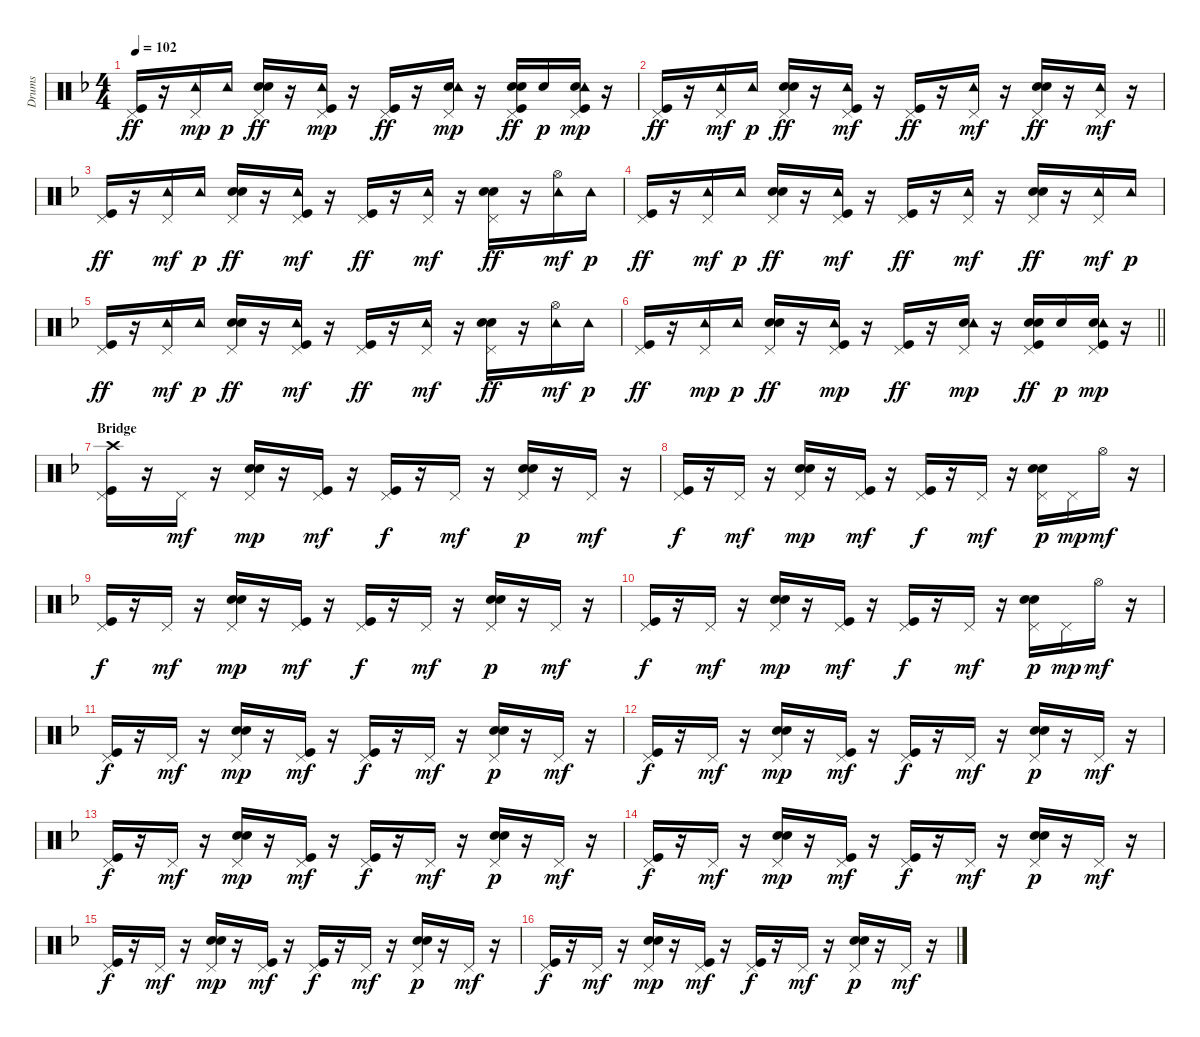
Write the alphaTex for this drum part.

\track ("Drums   " "Drums   ") {instrument percussion}
\staff {score}
\articulation defaults
\ts (4 4)
\tempo 102
\clef neutral
\ks f
("Kick (hit)" "Pedal Hi-Hat (hit)").16{dy ff} r.16 ("Pedal Hi-Hat (hit)" "Tambourine (hit)").16{dy mp} "Tambourine (hit)".16{dy p} ("Electric Snare (hit)" "Pedal Hi-Hat (hit)" "Hand Clap (hit)").16{dy ff} r.16 ("Kick (hit)" "Pedal Hi-Hat (hit)" "Tambourine (hit)").16{dy mp} r.16 ("Kick (hit)" "Pedal Hi-Hat (hit)").16{dy ff} r.16 ("Electric Snare (hit)" "Pedal Hi-Hat (hit)" "Tambourine (hit)").16{dy mp} r.16 ("Kick (hit)" "Electric Snare (hit)" "Pedal Hi-Hat (hit)" "Hand Clap (hit)").16{dy ff} "Electric Snare (hit)".16{dy p} ("Kick (hit)" "Electric Snare (hit)" "Pedal Hi-Hat (hit)" "Tambourine (hit)").16{dy mp} r.16 |
("Kick (hit)" "Pedal Hi-Hat (hit)").16{dy ff} r.16 ("Pedal Hi-Hat (hit)" "Tambourine (hit)").16{dy mf} "Tambourine (hit)".16{dy p} ("Electric Snare (hit)" "Pedal Hi-Hat (hit)" "Hand Clap (hit)").16{dy ff} r.16 ("Kick (hit)" "Pedal Hi-Hat (hit)" "Tambourine (hit)").16{dy mf} r.16 ("Kick (hit)" "Pedal Hi-Hat (hit)").16{dy ff} r.16 ("Pedal Hi-Hat (hit)" "Tambourine (hit)").16{dy mf} r.16 ("Electric Snare (hit)" "Pedal Hi-Hat (hit)" "Hand Clap (hit)").16{dy ff} r.16 ("Pedal Hi-Hat (hit)" "Tambourine (hit)").16{dy mf} r.16 |
("Kick (hit)" "Pedal Hi-Hat (hit)").16{dy ff} r.16 ("Pedal Hi-Hat (hit)" "Tambourine (hit)").16{dy mf} "Tambourine (hit)".16{dy p} ("Electric Snare (hit)" "Pedal Hi-Hat (hit)" "Hand Clap (hit)").16{dy ff} r.16 ("Kick (hit)" "Pedal Hi-Hat (hit)" "Tambourine (hit)").16{dy mf} r.16 ("Kick (hit)" "Pedal Hi-Hat (hit)").16{dy ff} r.16 ("Pedal Hi-Hat (hit)" "Tambourine (hit)").16{dy mf} r.16 ("Electric Snare (hit)" "Pedal Hi-Hat (hit)" "Hand Clap (hit)").16{dy ff} r.16 ("Hi-Hat (open)" "Tambourine (hit)").16{dy mf} "Tambourine (hit)".16{dy p} |
("Kick (hit)" "Pedal Hi-Hat (hit)").16{dy ff} r.16 ("Pedal Hi-Hat (hit)" "Tambourine (hit)").16{dy mf} "Tambourine (hit)".16{dy p} ("Electric Snare (hit)" "Pedal Hi-Hat (hit)" "Hand Clap (hit)").16{dy ff} r.16 ("Kick (hit)" "Pedal Hi-Hat (hit)" "Tambourine (hit)").16{dy mf} r.16 ("Kick (hit)" "Pedal Hi-Hat (hit)").16{dy ff} r.16 ("Pedal Hi-Hat (hit)" "Tambourine (hit)").16{dy mf} r.16 ("Electric Snare (hit)" "Pedal Hi-Hat (hit)" "Hand Clap (hit)").16{dy ff} r.16 ("Pedal Hi-Hat (hit)" "Tambourine (hit)").16{dy mf} "Tambourine (hit)".16{dy p} |
("Kick (hit)" "Pedal Hi-Hat (hit)").16{dy ff} r.16 ("Pedal Hi-Hat (hit)" "Tambourine (hit)").16{dy mf} "Tambourine (hit)".16{dy p} ("Electric Snare (hit)" "Pedal Hi-Hat (hit)" "Hand Clap (hit)").16{dy ff} r.16 ("Kick (hit)" "Pedal Hi-Hat (hit)" "Tambourine (hit)").16{dy mf} r.16 ("Kick (hit)" "Pedal Hi-Hat (hit)").16{dy ff} r.16 ("Pedal Hi-Hat (hit)" "Tambourine (hit)").16{dy mf} r.16 ("Electric Snare (hit)" "Pedal Hi-Hat (hit)" "Hand Clap (hit)").16{dy ff} r.16 ("Hi-Hat (open)" "Tambourine (hit)").16{dy mf} "Tambourine (hit)".16{dy p} |
\barLineRight lightlight
("Kick (hit)" "Pedal Hi-Hat (hit)").16{dy ff} r.16 ("Pedal Hi-Hat (hit)" "Tambourine (hit)").16{dy mp} "Tambourine (hit)".16{dy p} ("Electric Snare (hit)" "Pedal Hi-Hat (hit)" "Hand Clap (hit)").16{dy ff} r.16 ("Kick (hit)" "Pedal Hi-Hat (hit)" "Tambourine (hit)").16{dy mp} r.16 ("Kick (hit)" "Pedal Hi-Hat (hit)").16{dy ff} r.16 ("Electric Snare (hit)" "Pedal Hi-Hat (hit)" "Tambourine (hit)").16{dy mp} r.16 ("Kick (hit)" "Electric Snare (hit)" "Pedal Hi-Hat (hit)" "Hand Clap (hit)").16{dy ff} "Electric Snare (hit)".16{dy p} ("Kick (hit)" "Electric Snare (hit)" "Pedal Hi-Hat (hit)" "Tambourine (hit)").16{dy mp} r.16 |
\section ("" "Bridge")
("Kick (hit)" "Crash high (hit)" "Pedal Hi-Hat (hit)").16 r.16 "Pedal Hi-Hat (hit)".16{dy mf} r.16 ("Electric Snare (hit)" "Pedal Hi-Hat (hit)" "Hand Clap (hit)").16{dy mp} r.16 ("Kick (hit)" "Pedal Hi-Hat (hit)").16{dy mf} r.16 ("Kick (hit)" "Pedal Hi-Hat (hit)").16{dy f} r.16 "Pedal Hi-Hat (hit)".16{dy mf} r.16 ("Electric Snare (hit)" "Pedal Hi-Hat (hit)" "Hand Clap (hit)").16{dy p} r.16 "Pedal Hi-Hat (hit)".16{dy mf} r.16 |
("Kick (hit)" "Pedal Hi-Hat (hit)").16{dy f} r.16 "Pedal Hi-Hat (hit)".16{dy mf} r.16 ("Electric Snare (hit)" "Pedal Hi-Hat (hit)" "Hand Clap (hit)").16{dy mp} r.16 ("Kick (hit)" "Pedal Hi-Hat (hit)").16{dy mf} r.16 ("Kick (hit)" "Pedal Hi-Hat (hit)").16{dy f} r.16 "Pedal Hi-Hat (hit)".16{dy mf} r.16 ("Electric Snare (hit)" "Pedal Hi-Hat (hit)" "Hand Clap (hit)").16{dy p} "Pedal Hi-Hat (hit)".16{dy mp} "Hi-Hat (open)".16{dy mf} r.16 |
("Kick (hit)" "Pedal Hi-Hat (hit)").16{dy f} r.16 "Pedal Hi-Hat (hit)".16{dy mf} r.16 ("Electric Snare (hit)" "Pedal Hi-Hat (hit)" "Hand Clap (hit)").16{dy mp} r.16 ("Kick (hit)" "Pedal Hi-Hat (hit)").16{dy mf} r.16 ("Kick (hit)" "Pedal Hi-Hat (hit)").16{dy f} r.16 "Pedal Hi-Hat (hit)".16{dy mf} r.16 ("Electric Snare (hit)" "Pedal Hi-Hat (hit)" "Hand Clap (hit)").16{dy p} r.16 "Pedal Hi-Hat (hit)".16{dy mf} r.16 |
("Kick (hit)" "Pedal Hi-Hat (hit)").16{dy f} r.16 "Pedal Hi-Hat (hit)".16{dy mf} r.16 ("Electric Snare (hit)" "Pedal Hi-Hat (hit)" "Hand Clap (hit)").16{dy mp} r.16 ("Kick (hit)" "Pedal Hi-Hat (hit)").16{dy mf} r.16 ("Kick (hit)" "Pedal Hi-Hat (hit)").16{dy f} r.16 "Pedal Hi-Hat (hit)".16{dy mf} r.16 ("Electric Snare (hit)" "Pedal Hi-Hat (hit)" "Hand Clap (hit)").16{dy p} "Pedal Hi-Hat (hit)".16{dy mp} "Hi-Hat (open)".16{dy mf} r.16 |
("Kick (hit)" "Pedal Hi-Hat (hit)").16{dy f} r.16 "Pedal Hi-Hat (hit)".16{dy mf} r.16 ("Electric Snare (hit)" "Pedal Hi-Hat (hit)" "Hand Clap (hit)").16{dy mp} r.16 ("Kick (hit)" "Pedal Hi-Hat (hit)").16{dy mf} r.16 ("Kick (hit)" "Pedal Hi-Hat (hit)").16{dy f} r.16 "Pedal Hi-Hat (hit)".16{dy mf} r.16 ("Electric Snare (hit)" "Pedal Hi-Hat (hit)" "Hand Clap (hit)").16{dy p} r.16 "Pedal Hi-Hat (hit)".16{dy mf} r.16 |
("Kick (hit)" "Pedal Hi-Hat (hit)").16{dy f} r.16 "Pedal Hi-Hat (hit)".16{dy mf} r.16 ("Electric Snare (hit)" "Pedal Hi-Hat (hit)" "Hand Clap (hit)").16{dy mp} r.16 ("Kick (hit)" "Pedal Hi-Hat (hit)").16{dy mf} r.16 ("Kick (hit)" "Pedal Hi-Hat (hit)").16{dy f} r.16 "Pedal Hi-Hat (hit)".16{dy mf} r.16 ("Electric Snare (hit)" "Pedal Hi-Hat (hit)" "Hand Clap (hit)").16{dy p} r.16 "Pedal Hi-Hat (hit)".16{dy mf} r.16 |
("Kick (hit)" "Pedal Hi-Hat (hit)").16{dy f} r.16 "Pedal Hi-Hat (hit)".16{dy mf} r.16 ("Electric Snare (hit)" "Pedal Hi-Hat (hit)" "Hand Clap (hit)").16{dy mp} r.16 ("Kick (hit)" "Pedal Hi-Hat (hit)").16{dy mf} r.16 ("Kick (hit)" "Pedal Hi-Hat (hit)").16{dy f} r.16 "Pedal Hi-Hat (hit)".16{dy mf} r.16 ("Electric Snare (hit)" "Pedal Hi-Hat (hit)" "Hand Clap (hit)").16{dy p} r.16 "Pedal Hi-Hat (hit)".16{dy mf} r.16 |
("Kick (hit)" "Pedal Hi-Hat (hit)").16{dy f} r.16 "Pedal Hi-Hat (hit)".16{dy mf} r.16 ("Electric Snare (hit)" "Pedal Hi-Hat (hit)" "Hand Clap (hit)").16{dy mp} r.16 ("Kick (hit)" "Pedal Hi-Hat (hit)").16{dy mf} r.16 ("Kick (hit)" "Pedal Hi-Hat (hit)").16{dy f} r.16 "Pedal Hi-Hat (hit)".16{dy mf} r.16 ("Electric Snare (hit)" "Pedal Hi-Hat (hit)" "Hand Clap (hit)").16{dy p} r.16 "Pedal Hi-Hat (hit)".16{dy mf} r.16 |
("Kick (hit)" "Pedal Hi-Hat (hit)").16{dy f} r.16 "Pedal Hi-Hat (hit)".16{dy mf} r.16 ("Electric Snare (hit)" "Pedal Hi-Hat (hit)" "Hand Clap (hit)").16{dy mp} r.16 ("Kick (hit)" "Pedal Hi-Hat (hit)").16{dy mf} r.16 ("Kick (hit)" "Pedal Hi-Hat (hit)").16{dy f} r.16 "Pedal Hi-Hat (hit)".16{dy mf} r.16 ("Electric Snare (hit)" "Pedal Hi-Hat (hit)" "Hand Clap (hit)").16{dy p} r.16 "Pedal Hi-Hat (hit)".16{dy mf} r.16 |
("Kick (hit)" "Pedal Hi-Hat (hit)").16{dy f} r.16 "Pedal Hi-Hat (hit)".16{dy mf} r.16 ("Electric Snare (hit)" "Pedal Hi-Hat (hit)" "Hand Clap (hit)").16{dy mp} r.16 ("Kick (hit)" "Pedal Hi-Hat (hit)").16{dy mf} r.16 ("Kick (hit)" "Pedal Hi-Hat (hit)").16{dy f} r.16 "Pedal Hi-Hat (hit)".16{dy mf} r.16 ("Electric Snare (hit)" "Pedal Hi-Hat (hit)" "Hand Clap (hit)").16{dy p} r.16 "Pedal Hi-Hat (hit)".16{dy mf} r.16
